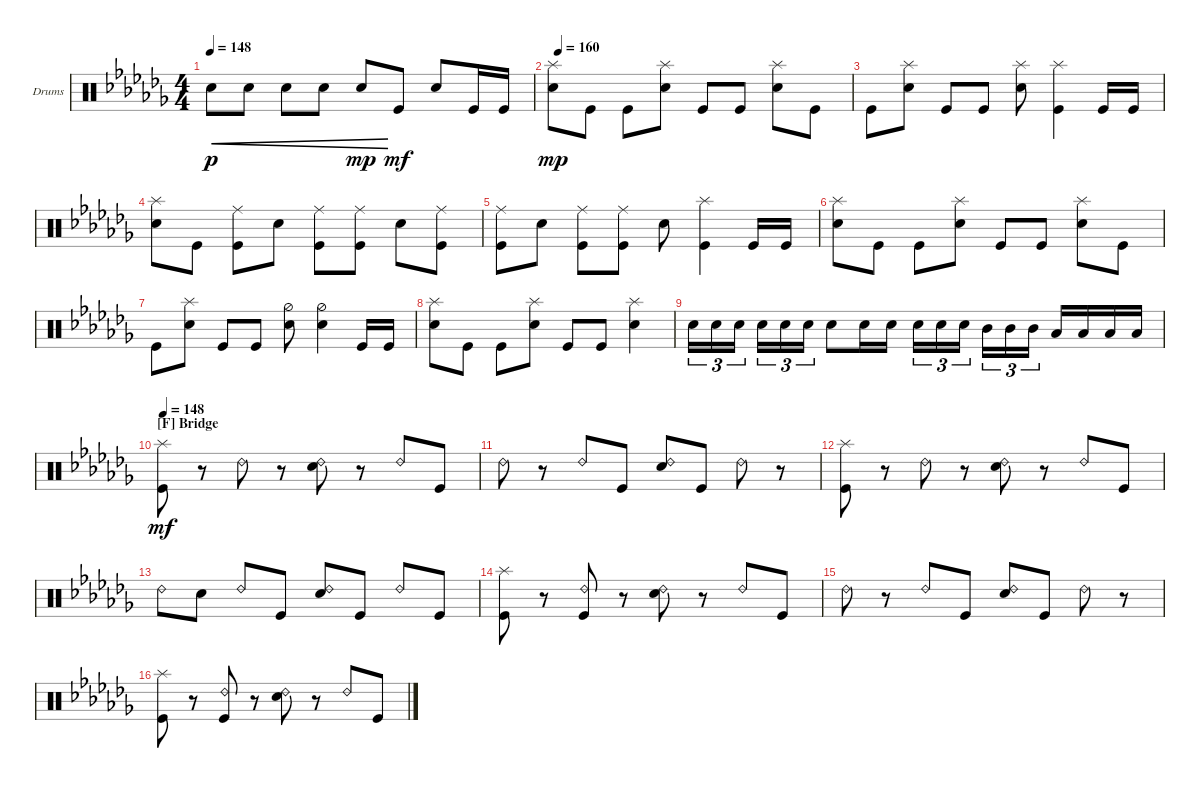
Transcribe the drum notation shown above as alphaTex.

\defaultSystemsLayout 4
\bracketExtendMode groupsimilarinstruments
\firstSystemTrackNameOrientation horizontal
\otherSystemsTrackNameOrientation horizontal
\track ("Drumkit" "Drums") {instrument percussion}
\staff {score}
\articulation defaults
\ts (4 4)
\tempo 148
\clef neutral
\ks abminor "Snare (hit) 2".8{cre dy p} "Snare (hit) 2".8{cre} "Snare (hit) 2".8{cre} "Snare (hit) 2".8{cre} "Snare (hit) 2".8{cre dy mp} "Kick (hit)".8{dy mf} "Snare (hit) 2".8 "Kick (hit)".16 "Kick (hit)".16
|
\tempo (160 0.0217391)
("Splash (hit)" "Snare (hit) 2").8{dy mp} "Kick (hit)".8 "Kick (hit)".8 ("Splash (hit)" "Snare (hit) 2").8 "Kick (hit)".8 "Kick (hit)".8 ("Splash (hit)" "Snare (hit) 2").8 "Kick (hit)".8 |
"Kick (hit)".8 ("Splash (hit)" "Snare (hit) 2").8 "Kick (hit)".8 "Kick (hit)".8 ("Splash (hit)" "Snare (hit) 2").8 ("Kick (hit)" "Splash (hit)").4 "Kick (hit)".16 "Kick (hit)".16 |
("Splash (hit)" "Snare (hit) 2").8 "Kick (hit)".8 ("Kick (hit)" "Ride (middle)").8 "Snare (hit) 2".8 ("Kick (hit)" "Ride (middle)").8 ("Kick (hit)" "Ride (middle)").8 "Snare (hit) 2".8 ("Kick (hit)" "Ride (middle)").8 |
("Ride (middle)" "Kick (hit)").8 "Snare (hit) 2".8 ("Kick (hit)" "Ride (middle)").8 ("Kick (hit)" "Ride (middle)").8 "Snare (hit) 2".8 ("Kick (hit)" "Splash (hit)").4 "Kick (hit)".16 "Kick (hit)".16 |
("Splash (hit)" "Snare (hit) 2").8 "Kick (hit)".8 "Kick (hit)".8 ("Splash (hit)" "Snare (hit) 2").8 "Kick (hit)".8 "Kick (hit)".8 ("Splash (hit)" "Snare (hit) 2").8 "Kick (hit)".8 |
"Kick (hit)".8 ("Splash (hit)" "Snare (hit) 2").8 "Kick (hit)".8 "Kick (hit)".8 ("Snare (hit) 2" "Hi-Hat (half)").8 ("Hi-Hat (half)" "Snare (hit) 2").4 "Kick (hit)".16 "Kick (hit)".16 |
("Splash (hit)" "Snare (hit) 2").8 "Kick (hit)".8 "Kick (hit)".8 ("Splash (hit)" "Snare (hit) 2").8 "Kick (hit)".8 "Kick (hit)".8 ("Splash (hit)" "Snare (hit) 2").4 |
"Snare (hit) 2".16{tu (3 2)} "Snare (hit) 2".16{tu (3 2)} "Snare (hit) 2".16{tu (3 2)} "Snare (hit) 2".16{tu (3 2)} "Snare (hit) 2".16{tu (3 2)} "Snare (hit) 2".16{tu (3 2)} "Snare (hit) 2".8 "Snare (hit) 2".16 "Snare (hit) 2".16 "Snare (hit) 2".16{tu (3 2)} "Snare (hit) 2".16{tu (3 2)} "Snare (hit) 2".16{tu (3 2)} "Mid Tom (hit)".16{tu (3 2)} "Mid Tom (hit)".16{tu (3 2)} "Mid Tom (hit)".16{tu (3 2)} "Low Tom (hit)".16 "Low Tom (hit)".16 "Low Tom (hit)".16 "Low Tom (hit)".16 |
\section ("F" "Bridge")
\tempo (148 0.00625)
("Kick (hit)" "Splash (hit)").8{dy mf} r.8 "Ride (bell) 2".8 r.8 ("Ride (bell) 2" "Snare (hit) 2").8 r.8 "Ride (bell) 2".8 "Kick (hit)".8 |
"Ride (bell) 2".8 r.8 "Ride (bell) 2".8 "Kick (hit)".8 ("Ride (bell) 2" "Snare (hit) 2").8 "Kick (hit)".8 "Ride (bell) 2".8 r.8 |
("Kick (hit)" "Splash (hit)").8 r.8 "Ride (bell) 2".8 r.8 ("Ride (bell) 2" "Snare (hit) 2").8 r.8 "Ride (bell) 2".8 "Kick (hit)".8 |
"Ride (bell) 2".8 "Snare (hit) 2".8 "Ride (bell) 2".8 "Kick (hit)".8 ("Ride (bell) 2" "Snare (hit) 2").8 "Kick (hit)".8 "Ride (bell) 2".8 "Kick (hit)".8 |
("Kick (hit)" "Splash (hit)").8 r.8 ("Ride (bell) 2" "Kick (hit)").8 r.8 ("Ride (bell) 2" "Snare (hit) 2").8 r.8 "Ride (bell) 2".8 "Kick (hit)".8 |
"Ride (bell) 2".8 r.8 "Ride (bell) 2".8 "Kick (hit)".8 ("Ride (bell) 2" "Snare (hit) 2").8 "Kick (hit)".8 "Ride (bell) 2".8 r.8 |
("Kick (hit)" "Splash (hit)").8 r.8 ("Ride (bell) 2" "Kick (hit)").8 r.8 ("Ride (bell) 2" "Snare (hit) 2").8 r.8 "Ride (bell) 2".8 "Kick (hit)".8
